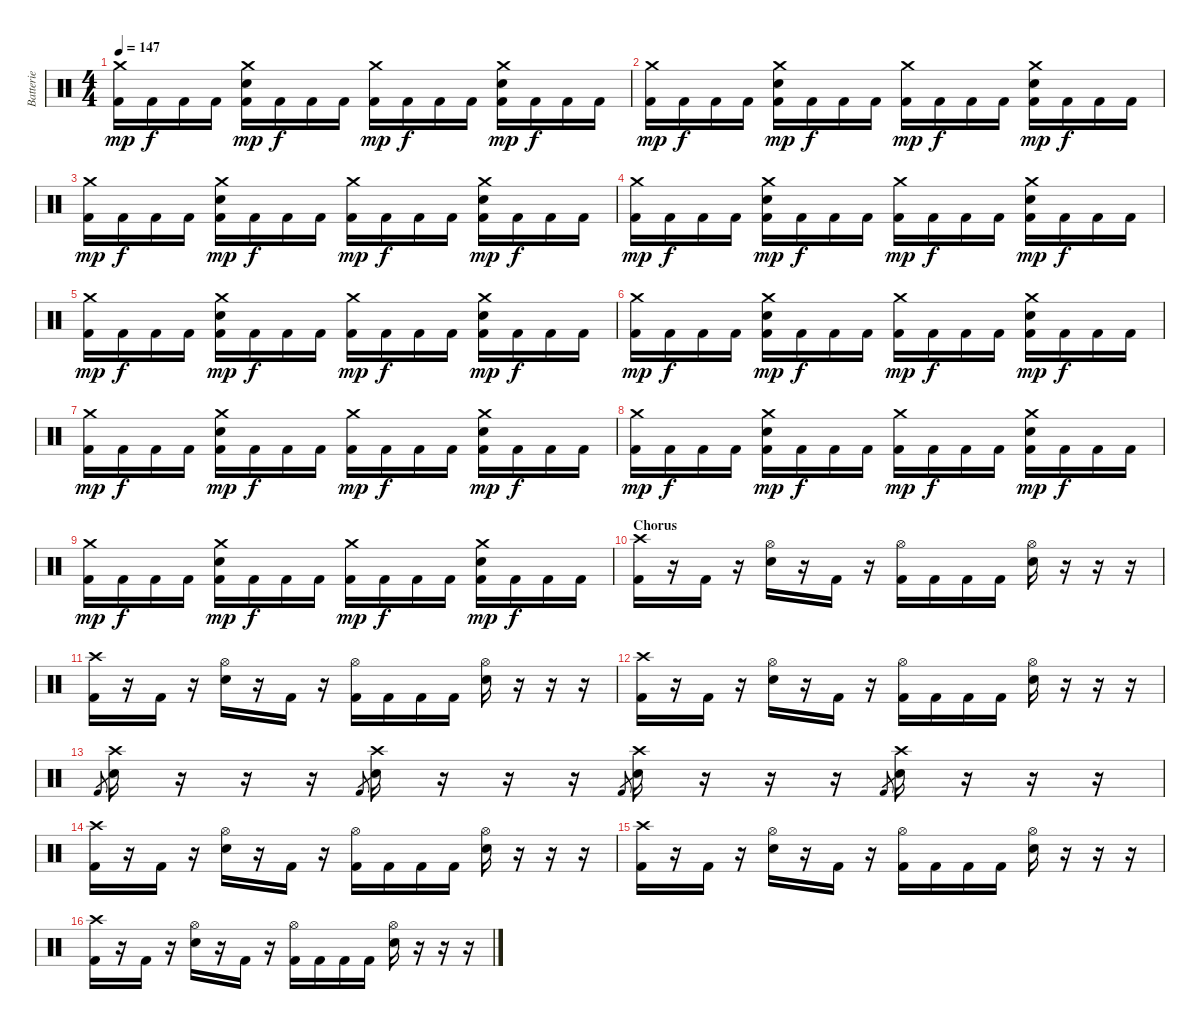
\track ("Batterie" "Batterie") {instrument percussion}
\staff {score}
\articulation defaults
\ts (4 4)
\tempo 147
\clef neutral
\ks c
("Crash medium (hit)" "Kick (hit) 2").16{dy mp} "Kick (hit) 2".16{dy f} "Kick (hit) 2".16 "Kick (hit) 2".16 ("Crash medium (hit)" "Kick (hit) 2" "Electric Snare (hit)").16{dy mp} "Kick (hit) 2".16{dy f} "Kick (hit) 2".16 "Kick (hit) 2".16 ("Crash medium (hit)" "Kick (hit) 2").16{dy mp} "Kick (hit) 2".16{dy f} "Kick (hit) 2".16 "Kick (hit) 2".16 ("Crash medium (hit)" "Kick (hit) 2" "Electric Snare (hit)").16{dy mp} "Kick (hit) 2".16{dy f} "Kick (hit) 2".16 "Kick (hit) 2".16 |
("Crash medium (hit)" "Kick (hit) 2").16{dy mp} "Kick (hit) 2".16{dy f} "Kick (hit) 2".16 "Kick (hit) 2".16 ("Crash medium (hit)" "Kick (hit) 2" "Electric Snare (hit)").16{dy mp} "Kick (hit) 2".16{dy f} "Kick (hit) 2".16 "Kick (hit) 2".16 ("Crash medium (hit)" "Kick (hit) 2").16{dy mp} "Kick (hit) 2".16{dy f} "Kick (hit) 2".16 "Kick (hit) 2".16 ("Crash medium (hit)" "Kick (hit) 2" "Electric Snare (hit)").16{dy mp} "Kick (hit) 2".16{dy f} "Kick (hit) 2".16 "Kick (hit) 2".16 |
("Crash medium (hit)" "Kick (hit) 2").16{dy mp} "Kick (hit) 2".16{dy f} "Kick (hit) 2".16 "Kick (hit) 2".16 ("Crash medium (hit)" "Kick (hit) 2" "Electric Snare (hit)").16{dy mp} "Kick (hit) 2".16{dy f} "Kick (hit) 2".16 "Kick (hit) 2".16 ("Crash medium (hit)" "Kick (hit) 2").16{dy mp} "Kick (hit) 2".16{dy f} "Kick (hit) 2".16 "Kick (hit) 2".16 ("Crash medium (hit)" "Kick (hit) 2" "Electric Snare (hit)").16{dy mp} "Kick (hit) 2".16{dy f} "Kick (hit) 2".16 "Kick (hit) 2".16 |
("Crash medium (hit)" "Kick (hit) 2").16{dy mp} "Kick (hit) 2".16{dy f} "Kick (hit) 2".16 "Kick (hit) 2".16 ("Crash medium (hit)" "Kick (hit) 2" "Electric Snare (hit)").16{dy mp} "Kick (hit) 2".16{dy f} "Kick (hit) 2".16 "Kick (hit) 2".16 ("Crash medium (hit)" "Kick (hit) 2").16{dy mp} "Kick (hit) 2".16{dy f} "Kick (hit) 2".16 "Kick (hit) 2".16 ("Crash medium (hit)" "Kick (hit) 2" "Electric Snare (hit)").16{dy mp} "Kick (hit) 2".16{dy f} "Kick (hit) 2".16 "Kick (hit) 2".16 |
("Crash medium (hit)" "Kick (hit) 2").16{dy mp} "Kick (hit) 2".16{dy f} "Kick (hit) 2".16 "Kick (hit) 2".16 ("Crash medium (hit)" "Kick (hit) 2" "Electric Snare (hit)").16{dy mp} "Kick (hit) 2".16{dy f} "Kick (hit) 2".16 "Kick (hit) 2".16 ("Crash medium (hit)" "Kick (hit) 2").16{dy mp} "Kick (hit) 2".16{dy f} "Kick (hit) 2".16 "Kick (hit) 2".16 ("Crash medium (hit)" "Kick (hit) 2" "Electric Snare (hit)").16{dy mp} "Kick (hit) 2".16{dy f} "Kick (hit) 2".16 "Kick (hit) 2".16 |
("Crash medium (hit)" "Kick (hit) 2").16{dy mp} "Kick (hit) 2".16{dy f} "Kick (hit) 2".16 "Kick (hit) 2".16 ("Crash medium (hit)" "Kick (hit) 2" "Electric Snare (hit)").16{dy mp} "Kick (hit) 2".16{dy f} "Kick (hit) 2".16 "Kick (hit) 2".16 ("Crash medium (hit)" "Kick (hit) 2").16{dy mp} "Kick (hit) 2".16{dy f} "Kick (hit) 2".16 "Kick (hit) 2".16 ("Crash medium (hit)" "Kick (hit) 2" "Electric Snare (hit)").16{dy mp} "Kick (hit) 2".16{dy f} "Kick (hit) 2".16 "Kick (hit) 2".16 |
("Crash medium (hit)" "Kick (hit) 2").16{dy mp} "Kick (hit) 2".16{dy f} "Kick (hit) 2".16 "Kick (hit) 2".16 ("Crash medium (hit)" "Kick (hit) 2" "Electric Snare (hit)").16{dy mp} "Kick (hit) 2".16{dy f} "Kick (hit) 2".16 "Kick (hit) 2".16 ("Crash medium (hit)" "Kick (hit) 2").16{dy mp} "Kick (hit) 2".16{dy f} "Kick (hit) 2".16 "Kick (hit) 2".16 ("Crash medium (hit)" "Kick (hit) 2" "Electric Snare (hit)").16{dy mp} "Kick (hit) 2".16{dy f} "Kick (hit) 2".16 "Kick (hit) 2".16 |
("Crash medium (hit)" "Kick (hit) 2").16{dy mp} "Kick (hit) 2".16{dy f} "Kick (hit) 2".16 "Kick (hit) 2".16 ("Crash medium (hit)" "Kick (hit) 2" "Electric Snare (hit)").16{dy mp} "Kick (hit) 2".16{dy f} "Kick (hit) 2".16 "Kick (hit) 2".16 ("Crash medium (hit)" "Kick (hit) 2").16{dy mp} "Kick (hit) 2".16{dy f} "Kick (hit) 2".16 "Kick (hit) 2".16 ("Crash medium (hit)" "Kick (hit) 2" "Electric Snare (hit)").16{dy mp} "Kick (hit) 2".16{dy f} "Kick (hit) 2".16 "Kick (hit) 2".16 |
("Crash medium (hit)" "Kick (hit) 2").16{dy mp} "Kick (hit) 2".16{dy f} "Kick (hit) 2".16 "Kick (hit) 2".16 ("Crash medium (hit)" "Kick (hit) 2" "Electric Snare (hit)").16{dy mp} "Kick (hit) 2".16{dy f} "Kick (hit) 2".16 "Kick (hit) 2".16 ("Crash medium (hit)" "Kick (hit) 2").16{dy mp} "Kick (hit) 2".16{dy f} "Kick (hit) 2".16 "Kick (hit) 2".16 ("Crash medium (hit)" "Kick (hit) 2" "Electric Snare (hit)").16{dy mp} "Kick (hit) 2".16{dy f} "Kick (hit) 2".16 "Kick (hit) 2".16 |
\section ("" "Chorus")
("Crash high (hit)" "Kick (hit) 2").16 r.16 "Kick (hit) 2".16 r.16 ("Hi-Hat (open)" "Electric Snare (hit)").16 r.16 "Kick (hit) 2".16 r.16 ("Hi-Hat (open)" "Kick (hit) 2").16 "Kick (hit) 2".16 "Kick (hit) 2".16 "Kick (hit) 2".16 ("Hi-Hat (open)" "Electric Snare (hit)").16 r.16 r.16 r.16 |
("Crash high (hit)" "Kick (hit) 2").16 r.16 "Kick (hit) 2".16 r.16 ("Hi-Hat (open)" "Electric Snare (hit)").16 r.16 "Kick (hit) 2".16 r.16 ("Hi-Hat (open)" "Kick (hit) 2").16 "Kick (hit) 2".16 "Kick (hit) 2".16 "Kick (hit) 2".16 ("Hi-Hat (open)" "Electric Snare (hit)").16 r.16 r.16 r.16 |
("Crash high (hit)" "Kick (hit) 2").16 r.16 "Kick (hit) 2".16 r.16 ("Hi-Hat (open)" "Electric Snare (hit)").16 r.16 "Kick (hit) 2".16 r.16 ("Hi-Hat (open)" "Kick (hit) 2").16 "Kick (hit) 2".16 "Kick (hit) 2".16 "Kick (hit) 2".16 ("Hi-Hat (open)" "Electric Snare (hit)").16 r.16 r.16 r.16 |
"Kick (hit) 2".8{gr} ("Crash high (hit)" "Electric Snare (hit)").16 r.16 r.16 r.16 "Kick (hit) 2".8{gr} ("Crash high (hit)" "Electric Snare (hit)").16 r.16 r.16 r.16 "Kick (hit) 2".8{gr} ("Crash high (hit)" "Electric Snare (hit)").16 r.16 r.16 r.16 "Kick (hit) 2".8{gr} ("Crash high (hit)" "Electric Snare (hit)").16 r.16 r.16 r.16 |
("Crash high (hit)" "Kick (hit) 2").16 r.16 "Kick (hit) 2".16 r.16 ("Hi-Hat (open)" "Electric Snare (hit)").16 r.16 "Kick (hit) 2".16 r.16 ("Hi-Hat (open)" "Kick (hit) 2").16 "Kick (hit) 2".16 "Kick (hit) 2".16 "Kick (hit) 2".16 ("Hi-Hat (open)" "Electric Snare (hit)").16 r.16 r.16 r.16 |
("Crash high (hit)" "Kick (hit) 2").16 r.16 "Kick (hit) 2".16 r.16 ("Hi-Hat (open)" "Electric Snare (hit)").16 r.16 "Kick (hit) 2".16 r.16 ("Hi-Hat (open)" "Kick (hit) 2").16 "Kick (hit) 2".16 "Kick (hit) 2".16 "Kick (hit) 2".16 ("Hi-Hat (open)" "Electric Snare (hit)").16 r.16 r.16 r.16 |
("Crash high (hit)" "Kick (hit) 2").16 r.16 "Kick (hit) 2".16 r.16 ("Hi-Hat (open)" "Electric Snare (hit)").16 r.16 "Kick (hit) 2".16 r.16 ("Hi-Hat (open)" "Kick (hit) 2").16 "Kick (hit) 2".16 "Kick (hit) 2".16 "Kick (hit) 2".16 ("Hi-Hat (open)" "Electric Snare (hit)").16 r.16 r.16 r.16
